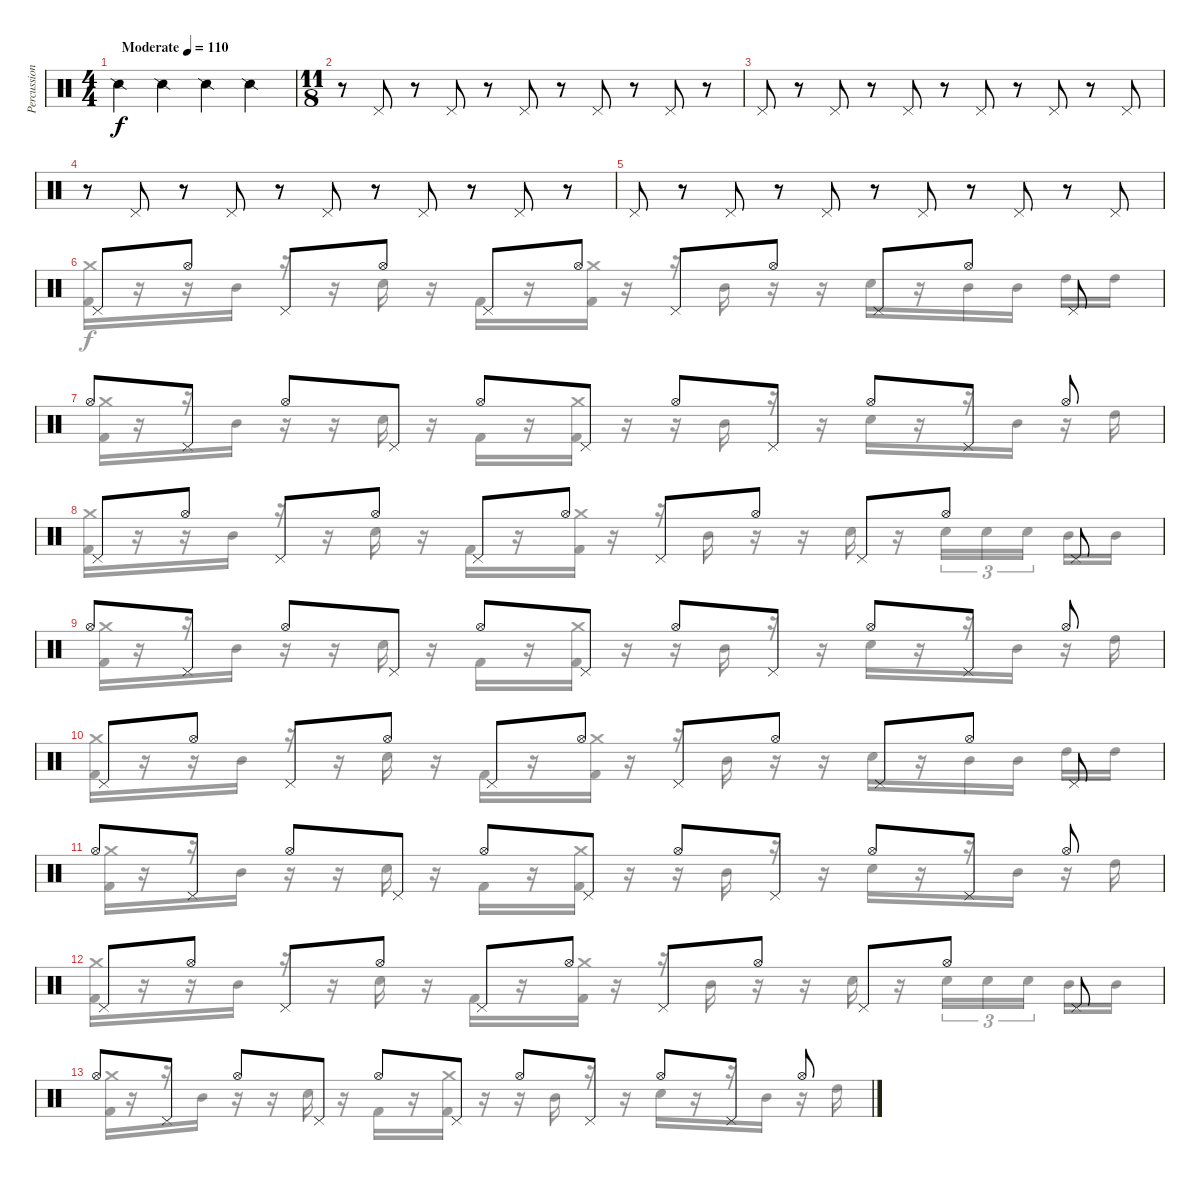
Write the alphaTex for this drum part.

\track ("Percussion" "Percussion") {instrument percussion}
\staff {score}
\articulation defaults
\voice
\ts (4 4)
\tempo (110 "Moderate")
\clef neutral
\ks c "Snare (side stick) 2".4{dy f} "Snare (side stick) 2".4 "Snare (side stick) 2".4 "Snare (side stick) 2".4
|
\ts (11 8)
r.8 "Pedal Hi-Hat (hit)".8 r.8 "Pedal Hi-Hat (hit)".8 r.8 "Pedal Hi-Hat (hit)".8 r.8 "Pedal Hi-Hat (hit)".8 r.8 "Pedal Hi-Hat (hit)".8 r.8 |
"Pedal Hi-Hat (hit)".8 r.8 "Pedal Hi-Hat (hit)".8 r.8 "Pedal Hi-Hat (hit)".8 r.8 "Pedal Hi-Hat (hit)".8 r.8 "Pedal Hi-Hat (hit)".8 r.8 "Pedal Hi-Hat (hit)".8 |
r.8 "Pedal Hi-Hat (hit)".8 r.8 "Pedal Hi-Hat (hit)".8 r.8 "Pedal Hi-Hat (hit)".8 r.8 "Pedal Hi-Hat (hit)".8 r.8 "Pedal Hi-Hat (hit)".8 r.8 |
"Pedal Hi-Hat (hit)".8 r.8 "Pedal Hi-Hat (hit)".8 r.8 "Pedal Hi-Hat (hit)".8 r.8 "Pedal Hi-Hat (hit)".8 r.8 "Pedal Hi-Hat (hit)".8 r.8 "Pedal Hi-Hat (hit)".8 |
"Pedal Hi-Hat (hit)".8 "Hi-Hat (open)".8 "Pedal Hi-Hat (hit)".8 "Hi-Hat (open)".8 "Pedal Hi-Hat (hit)".8 "Hi-Hat (open)".8 "Pedal Hi-Hat (hit)".8 "Hi-Hat (open)".8 "Pedal Hi-Hat (hit)".8 "Hi-Hat (open)".8 "Pedal Hi-Hat (hit)".8 |
"Hi-Hat (open)".8 "Pedal Hi-Hat (hit)".8 "Hi-Hat (open)".8 "Pedal Hi-Hat (hit)".8 "Hi-Hat (open)".8 "Pedal Hi-Hat (hit)".8 "Hi-Hat (open)".8 "Pedal Hi-Hat (hit)".8 "Hi-Hat (open)".8 "Pedal Hi-Hat (hit)".8 "Hi-Hat (open)".8 |
"Pedal Hi-Hat (hit)".8 "Hi-Hat (open)".8 "Pedal Hi-Hat (hit)".8 "Hi-Hat (open)".8 "Pedal Hi-Hat (hit)".8 "Hi-Hat (open)".8 "Pedal Hi-Hat (hit)".8 "Hi-Hat (open)".8 "Pedal Hi-Hat (hit)".8 "Hi-Hat (open)".8 "Pedal Hi-Hat (hit)".8 |
"Hi-Hat (open)".8 "Pedal Hi-Hat (hit)".8 "Hi-Hat (open)".8 "Pedal Hi-Hat (hit)".8 "Hi-Hat (open)".8 "Pedal Hi-Hat (hit)".8 "Hi-Hat (open)".8 "Pedal Hi-Hat (hit)".8 "Hi-Hat (open)".8 "Pedal Hi-Hat (hit)".8 "Hi-Hat (open)".8 |
"Pedal Hi-Hat (hit)".8 "Hi-Hat (open)".8 "Pedal Hi-Hat (hit)".8 "Hi-Hat (open)".8 "Pedal Hi-Hat (hit)".8 "Hi-Hat (open)".8 "Pedal Hi-Hat (hit)".8 "Hi-Hat (open)".8 "Pedal Hi-Hat (hit)".8 "Hi-Hat (open)".8 "Pedal Hi-Hat (hit)".8 |
"Hi-Hat (open)".8 "Pedal Hi-Hat (hit)".8 "Hi-Hat (open)".8 "Pedal Hi-Hat (hit)".8 "Hi-Hat (open)".8 "Pedal Hi-Hat (hit)".8 "Hi-Hat (open)".8 "Pedal Hi-Hat (hit)".8 "Hi-Hat (open)".8 "Pedal Hi-Hat (hit)".8 "Hi-Hat (open)".8 |
"Pedal Hi-Hat (hit)".8 "Hi-Hat (open)".8 "Pedal Hi-Hat (hit)".8 "Hi-Hat (open)".8 "Pedal Hi-Hat (hit)".8 "Hi-Hat (open)".8 "Pedal Hi-Hat (hit)".8 "Hi-Hat (open)".8 "Pedal Hi-Hat (hit)".8 "Hi-Hat (open)".8 "Pedal Hi-Hat (hit)".8 |
"Hi-Hat (open)".8 "Pedal Hi-Hat (hit)".8 "Hi-Hat (open)".8 "Pedal Hi-Hat (hit)".8 "Hi-Hat (open)".8 "Pedal Hi-Hat (hit)".8 "Hi-Hat (open)".8 "Pedal Hi-Hat (hit)".8 "Hi-Hat (open)".8 "Pedal Hi-Hat (hit)".8 "Hi-Hat (open)".8 |
|
\voice
\clef neutral
\ottava regular
\simile none
\ks c
|
|
|
|
|
("Crash medium (hit)" "Kick (hit) 2").16 r.16 r.16 "Mid Tom (hit)".16 r.16 r.16 "Snare (hit) 2".16 r.16 "Kick (hit) 2".16 r.16 ("Crash medium (hit)" "Kick (hit) 2").16 r.16 r.16 "Mid Tom (hit)".16 r.16 r.16 "Snare (hit) 2".16 r.16 "Mid Tom (hit)".16 "Mid Tom (hit)".16 "High Tom (hit)".16 "High Tom (hit)".16 |
("Crash medium (hit)" "Kick (hit) 2").16 r.16 r.16 "Mid Tom (hit)".16 r.16 r.16 "Snare (hit) 2".16 r.16 "Kick (hit) 2".16 r.16 ("Crash medium (hit)" "Kick (hit) 2").16 r.16 r.16 "Mid Tom (hit)".16 r.16 r.16 "Snare (hit) 2".16 r.16 r.16 "Mid Tom (hit)".16 r.16 "High Tom (hit)".16 |
("Crash medium (hit)" "Kick (hit) 2").16 r.16 r.16 "Mid Tom (hit)".16 r.16 r.16 "Snare (hit) 2".16 r.16 "Kick (hit) 2".16 r.16 ("Crash medium (hit)" "Kick (hit) 2").16 r.16 r.16 "Mid Tom (hit)".16 r.16 r.16 "Snare (hit) 2".16 r.16 "Snare (hit) 2".16{tu (3 2)} "Snare (hit) 2".16{tu (3 2)} "Snare (hit) 2".16{tu (3 2)} "Mid Tom (hit)".16 "Mid Tom (hit)".16 |
("Crash medium (hit)" "Kick (hit) 2").16 r.16 r.16 "Mid Tom (hit)".16 r.16 r.16 "Snare (hit) 2".16 r.16 "Kick (hit) 2".16 r.16 ("Crash medium (hit)" "Kick (hit) 2").16 r.16 r.16 "Mid Tom (hit)".16 r.16 r.16 "Snare (hit) 2".16 r.16 r.16 "Mid Tom (hit)".16 r.16 "High Tom (hit)".16 |
("Crash medium (hit)" "Kick (hit) 2").16 r.16 r.16 "Mid Tom (hit)".16 r.16 r.16 "Snare (hit) 2".16 r.16 "Kick (hit) 2".16 r.16 ("Crash medium (hit)" "Kick (hit) 2").16 r.16 r.16 "Mid Tom (hit)".16 r.16 r.16 "Snare (hit) 2".16 r.16 "Mid Tom (hit)".16 "Mid Tom (hit)".16 "High Tom (hit)".16 "High Tom (hit)".16 |
("Crash medium (hit)" "Kick (hit) 2").16 r.16 r.16 "Mid Tom (hit)".16 r.16 r.16 "Snare (hit) 2".16 r.16 "Kick (hit) 2".16 r.16 ("Crash medium (hit)" "Kick (hit) 2").16 r.16 r.16 "Mid Tom (hit)".16 r.16 r.16 "Snare (hit) 2".16 r.16 r.16 "Mid Tom (hit)".16 r.16 "High Tom (hit)".16 |
("Crash medium (hit)" "Kick (hit) 2").16 r.16 r.16 "Mid Tom (hit)".16 r.16 r.16 "Snare (hit) 2".16 r.16 "Kick (hit) 2".16 r.16 ("Crash medium (hit)" "Kick (hit) 2").16 r.16 r.16 "Mid Tom (hit)".16 r.16 r.16 "Snare (hit) 2".16 r.16 "Snare (hit) 2".16{tu (3 2)} "Snare (hit) 2".16{tu (3 2)} "Snare (hit) 2".16{tu (3 2)} "Mid Tom (hit)".16 "Mid Tom (hit)".16 |
("Crash medium (hit)" "Kick (hit) 2").16 r.16 r.16 "Mid Tom (hit)".16 r.16 r.16 "Snare (hit) 2".16 r.16 "Kick (hit) 2".16 r.16 ("Crash medium (hit)" "Kick (hit) 2").16 r.16 r.16 "Mid Tom (hit)".16 r.16 r.16 "Snare (hit) 2".16 r.16 r.16 "Mid Tom (hit)".16 r.16 "High Tom (hit)".16 |
|
